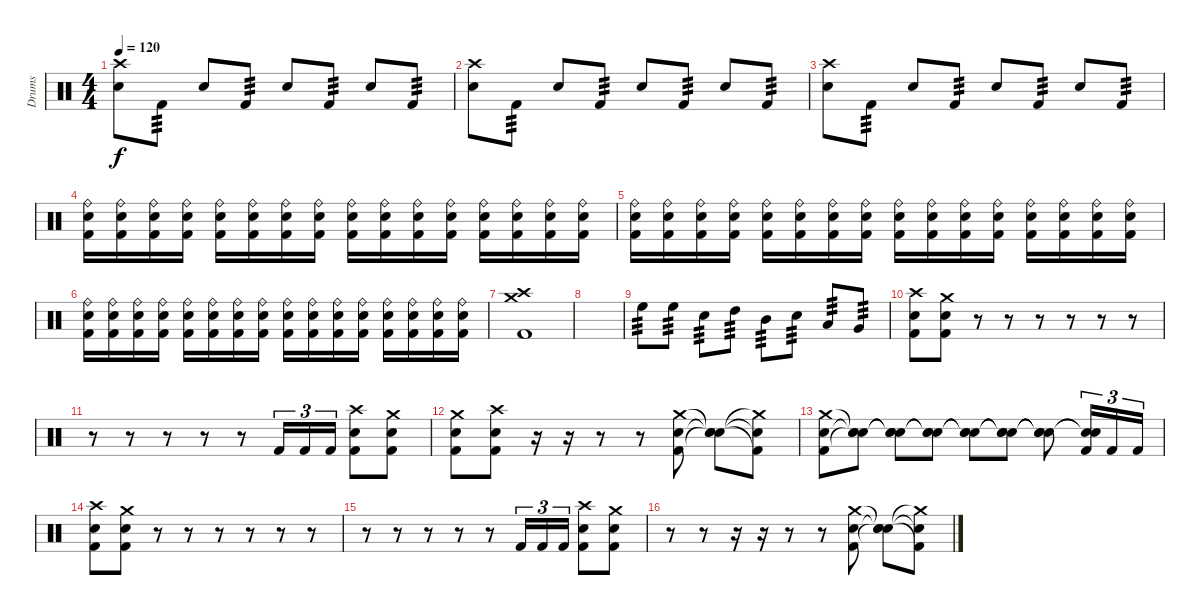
\track ("Drums" "Drums") {instrument percussion}
\staff {score}
\articulation defaults
\ts (4 4)
\tempo 120
\clef neutral
\ks c
("Crash high (hit)" "Snare (hit) 2").8{dy f} "Kick (hit) 2".8{tp 3} "Snare (hit) 2".8 "Kick (hit) 2".8{tp 3} "Snare (hit) 2".8 "Kick (hit) 2".8{tp 3} "Snare (hit) 2".8 "Kick (hit) 2".8{tp 3} |
("Crash high (hit)" "Snare (hit) 2").8 "Kick (hit) 2".8{tp 3} "Snare (hit) 2".8 "Kick (hit) 2".8{tp 3} "Snare (hit) 2".8 "Kick (hit) 2".8{tp 3} "Snare (hit) 2".8 "Kick (hit) 2".8{tp 3} |
("Crash high (hit)" "Snare (hit) 2").8 "Kick (hit) 2".8{tp 3} "Snare (hit) 2".8 "Kick (hit) 2".8{tp 3} "Snare (hit) 2".8 "Kick (hit) 2".8{tp 3} "Snare (hit) 2".8 "Kick (hit) 2".8{tp 3} |
("Ride (bell)" "Snare (hit) 2" "Kick (hit) 2").16 ("Ride (bell)" "Snare (hit) 2" "Kick (hit) 2").16 ("Ride (bell)" "Snare (hit) 2" "Kick (hit) 2").16 ("Ride (bell)" "Snare (hit) 2" "Kick (hit) 2").16 ("Ride (bell)" "Snare (hit) 2" "Kick (hit) 2").16 ("Ride (bell)" "Snare (hit) 2" "Kick (hit) 2").16 ("Ride (bell)" "Snare (hit) 2" "Kick (hit) 2").16 ("Ride (bell)" "Snare (hit) 2" "Kick (hit) 2").16 ("Ride (bell)" "Snare (hit) 2" "Kick (hit) 2").16 ("Ride (bell)" "Snare (hit) 2" "Kick (hit) 2").16 ("Ride (bell)" "Snare (hit) 2" "Kick (hit) 2").16 ("Ride (bell)" "Snare (hit) 2" "Kick (hit) 2").16 ("Ride (bell)" "Snare (hit) 2" "Kick (hit) 2").16 ("Ride (bell)" "Snare (hit) 2" "Kick (hit) 2").16 ("Ride (bell)" "Snare (hit) 2" "Kick (hit) 2").16 ("Ride (bell)" "Snare (hit) 2" "Kick (hit) 2").16 |
("Ride (bell)" "Snare (hit) 2" "Kick (hit) 2").16 ("Ride (bell)" "Snare (hit) 2" "Kick (hit) 2").16 ("Ride (bell)" "Snare (hit) 2" "Kick (hit) 2").16 ("Ride (bell)" "Snare (hit) 2" "Kick (hit) 2").16 ("Ride (bell)" "Snare (hit) 2" "Kick (hit) 2").16 ("Ride (bell)" "Snare (hit) 2" "Kick (hit) 2").16 ("Ride (bell)" "Snare (hit) 2" "Kick (hit) 2").16 ("Ride (bell)" "Snare (hit) 2" "Kick (hit) 2").16 ("Ride (bell)" "Snare (hit) 2" "Kick (hit) 2").16 ("Ride (bell)" "Snare (hit) 2" "Kick (hit) 2").16 ("Ride (bell)" "Snare (hit) 2" "Kick (hit) 2").16 ("Ride (bell)" "Snare (hit) 2" "Kick (hit) 2").16 ("Ride (bell)" "Snare (hit) 2" "Kick (hit) 2").16 ("Ride (bell)" "Snare (hit) 2" "Kick (hit) 2").16 ("Ride (bell)" "Snare (hit) 2" "Kick (hit) 2").16 ("Ride (bell)" "Snare (hit) 2" "Kick (hit) 2").16 |
("Ride (bell)" "Snare (hit) 2" "Kick (hit) 2").16 ("Ride (bell)" "Snare (hit) 2" "Kick (hit) 2").16 ("Ride (bell)" "Snare (hit) 2" "Kick (hit) 2").16 ("Ride (bell)" "Snare (hit) 2" "Kick (hit) 2").16 ("Ride (bell)" "Snare (hit) 2" "Kick (hit) 2").16 ("Ride (bell)" "Snare (hit) 2" "Kick (hit) 2").16 ("Ride (bell)" "Snare (hit) 2" "Kick (hit) 2").16 ("Ride (bell)" "Snare (hit) 2" "Kick (hit) 2").16 ("Ride (bell)" "Snare (hit) 2" "Kick (hit) 2").16 ("Ride (bell)" "Snare (hit) 2" "Kick (hit) 2").16 ("Ride (bell)" "Snare (hit) 2" "Kick (hit) 2").16 ("Ride (bell)" "Snare (hit) 2" "Kick (hit) 2").16 ("Ride (bell)" "Snare (hit) 2" "Kick (hit) 2").16 ("Ride (bell)" "Snare (hit) 2" "Kick (hit) 2").16 ("Ride (bell)" "Snare (hit) 2" "Kick (hit) 2").16 ("Ride (bell)" "Snare (hit) 2" "Kick (hit) 2").16 |
("Crash medium (hit)" "Crash high (hit)" "Kick (hit) 2").1 |
|
"High Floor Tom (hit)".8{tp 3} "High Floor Tom (hit)".8{tp 3} "Snare (hit) 2".8{tp 3} "High Tom (hit)".8{tp 3} "Mid Tom (hit)".8{tp 3} "Snare (hit) 2".8{tp 3} "Low Tom (hit)".8{tp 3} "Very Low Tom (hit)".8{tp 3} |
("Crash high (hit)" "Snare (hit) 2" "Kick (hit) 2").8 ("Crash medium (hit)" "Snare (hit) 2" "Kick (hit) 2").8 r.8 r.8 r.8 r.8 r.8 r.8 |
r.8 r.8 r.8 r.8 r.8 "Kick (hit) 2".16{tu (3 2)} "Kick (hit) 2".16{tu (3 2)} "Kick (hit) 2".16{tu (3 2)} ("Crash high (hit)" "Snare (hit) 2" "Kick (hit) 2").8 ("Crash medium (hit)" "Snare (hit) 2" "Kick (hit) 2").8 |
("Crash medium (hit)" "Snare (hit) 2" "Kick (hit) 2").8 ("Crash high (hit)" "Snare (hit) 2" "Kick (hit) 2").8 r.16 r.16 r.8 r.8 ("Crash medium (hit)" "Snare (hit) 2" "Kick (hit) 2").8 ("Snare (hit)"{t} "Snare (hit)"{t} "Snare (hit)"{t}).8 ("Crash medium (hit)"{t} "Snare (hit) 2"{t} "Kick (hit) 2"{t}).8 |
("Crash medium (hit)" "Snare (hit) 2" "Kick (hit) 2").8 ("Snare (hit)"{t} "Snare (hit)"{t} "Snare (hit)"{t}).8 ("Snare (hit)"{t} "Snare (hit)"{t} "Snare (hit)"{t}).8 ("Snare (hit)"{t} "Snare (hit)"{t} "Snare (hit)"{t}).8 ("Snare (hit)"{t} "Snare (hit)"{t} "Snare (hit)"{t}).8 ("Snare (hit)"{t} "Snare (hit)"{t} "Snare (hit)"{t}).8 ("Snare (hit)"{t} "Snare (hit)"{t} "Snare (hit)"{t}).8 ("Snare (hit)"{t} "Snare (hit)"{t} "Kick (hit) 2").16{tu (3 2)} "Kick (hit) 2".16{tu (3 2)} "Kick (hit) 2".16{tu (3 2)} |
("Crash high (hit)" "Snare (hit) 2" "Kick (hit) 2").8 ("Crash medium (hit)" "Snare (hit) 2" "Kick (hit) 2").8 r.8 r.8 r.8 r.8 r.8 r.8 |
r.8 r.8 r.8 r.8 r.8 "Kick (hit) 2".16{tu (3 2)} "Kick (hit) 2".16{tu (3 2)} "Kick (hit) 2".16{tu (3 2)} ("Crash high (hit)" "Snare (hit) 2" "Kick (hit) 2").8 ("Crash medium (hit)" "Snare (hit) 2" "Kick (hit) 2").8 |
r.8 r.8 r.16 r.16 r.8 r.8 ("Crash medium (hit)" "Snare (hit) 2" "Kick (hit) 2").8 ("Snare (hit)"{t} "Snare (hit)"{t} "Snare (hit)"{t}).8 ("Crash medium (hit)"{t} "Snare (hit) 2"{t} "Kick (hit) 2"{t}).8
